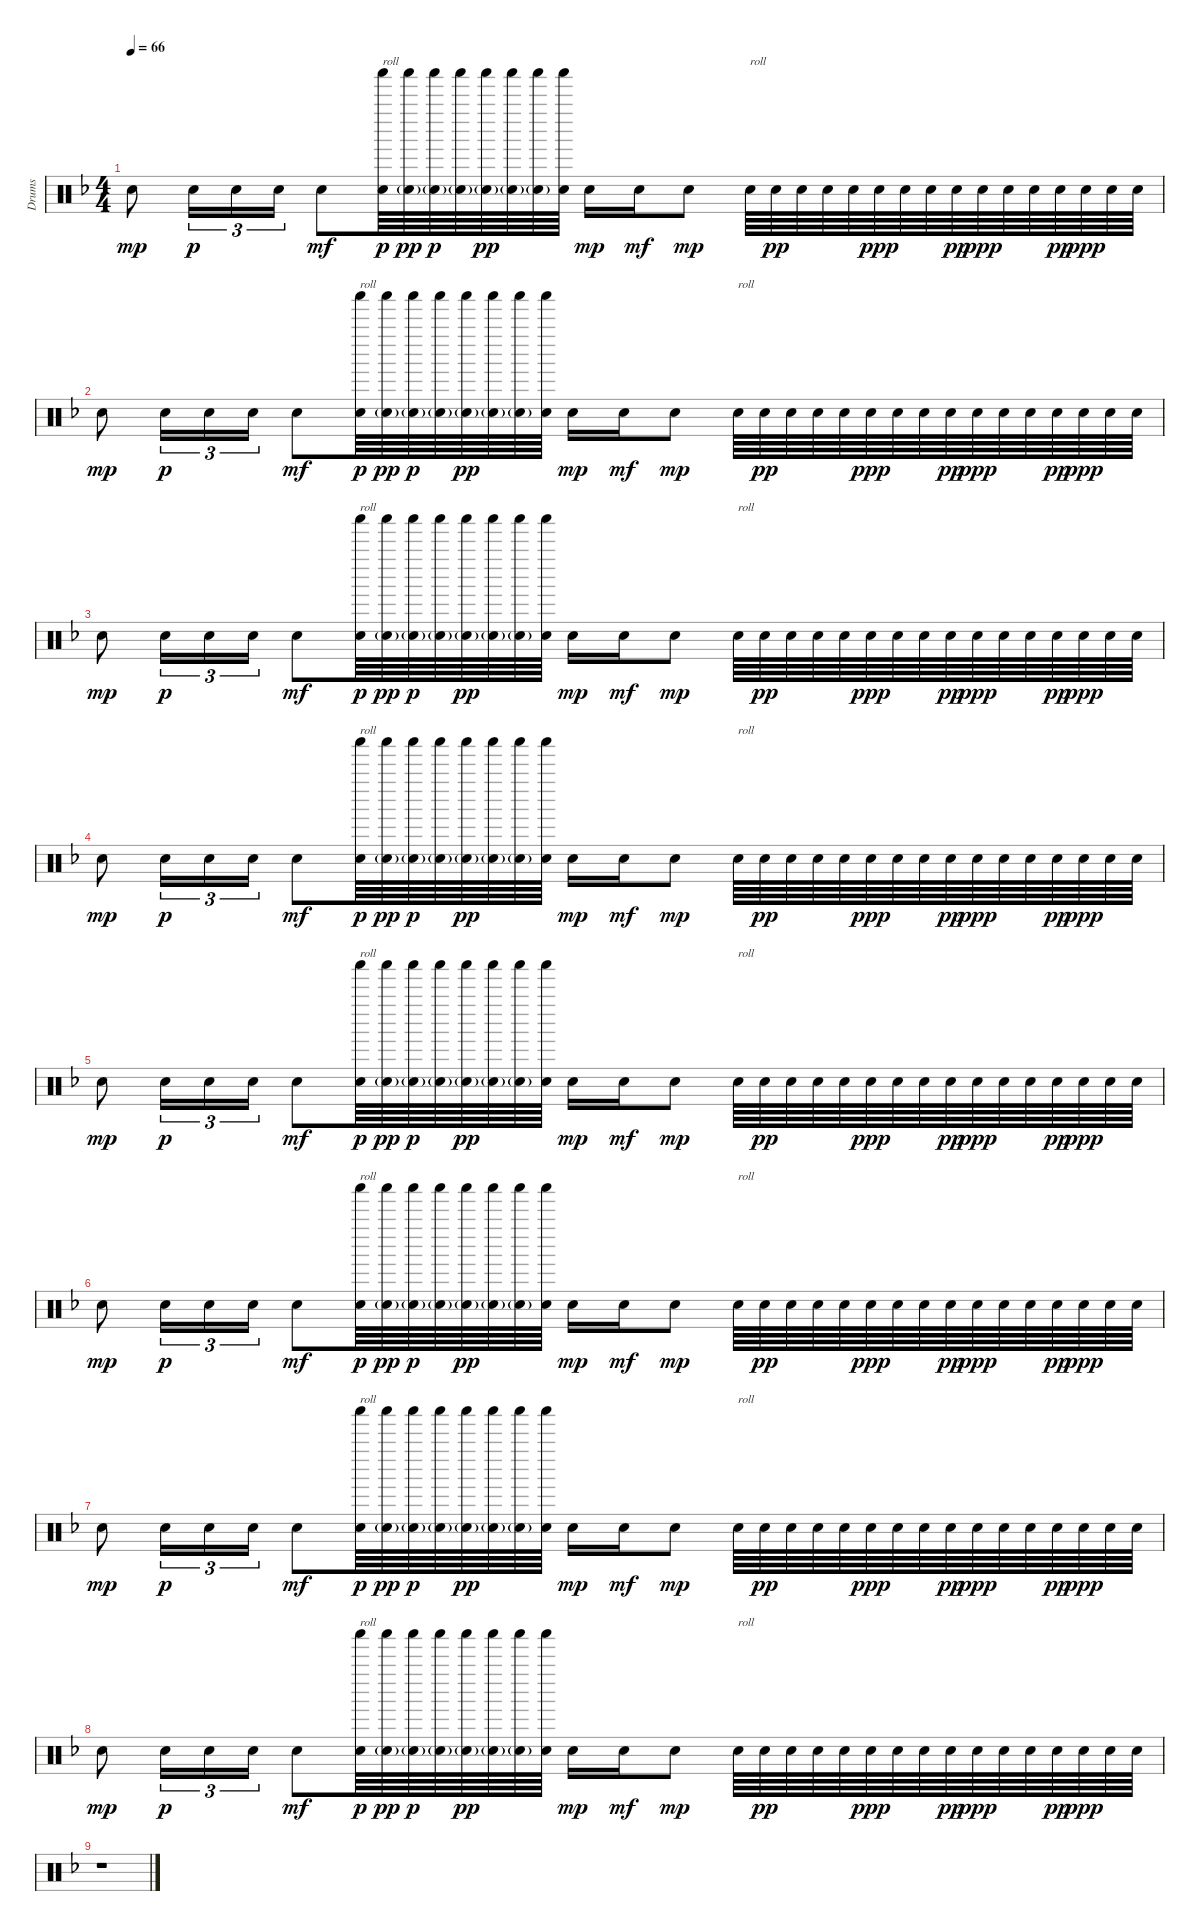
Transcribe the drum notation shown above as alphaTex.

\track ("Drums" "Drums") {instrument percussion}
\staff {score}
\articulation defaults
\ts (4 4)
\tempo 66
\clef neutral
\ks f "Electric Snare (hit)".8{dy mp} "Electric Snare (hit)".16{tu (3 2) dy p} "Electric Snare (hit)".16{tu (3 2)} "Electric Snare (hit)".16{tu (3 2)} "Electric Snare (hit)".8{dy mf}
("Shaker (hit)" "Electric Snare (hit)").64{txt "roll" dy p} ("Shaker (hit)" "Electric Snare (hit)"{g}).64{dy pp} ("Shaker (hit)" "Electric Snare (hit)"{g}).64{dy p} ("Shaker (hit)" "Electric Snare (hit)"{g}).64 ("Shaker (hit)" "Electric Snare (hit)"{g}).64{dy pp} ("Shaker (hit)" "Electric Snare (hit)"{g}).64 ("Shaker (hit)" "Electric Snare (hit)"{g}).64 ("Shaker (hit)" "Electric Snare (hit)").64 "Electric Snare (hit)".16{dy mp} "Electric Snare (hit)".16{dy mf} "Electric Snare (hit)".8{dy mp} "Electric Snare (hit)".64{txt "roll"} "Electric Snare (hit)".64{dy pp} "Electric Snare (hit)".64 "Electric Snare (hit)".64 "Electric Snare (hit)".64 "Electric Snare (hit)".64{dy ppp} "Electric Snare (hit)".64 "Electric Snare (hit)".64 "Electric Snare (hit)".64{dy pp} "Electric Snare (hit)".64{dy ppp} "Electric Snare (hit)".64 "Electric Snare (hit)".64 "Electric Snare (hit)".64{dy pp} "Electric Snare (hit)".64{dy ppp} "Electric Snare (hit)".64 "Electric Snare (hit)".64 |
"Electric Snare (hit)".8{dy mp} "Electric Snare (hit)".16{tu (3 2) dy p} "Electric Snare (hit)".16{tu (3 2)} "Electric Snare (hit)".16{tu (3 2)} "Electric Snare (hit)".8{dy mf} ("Shaker (hit)" "Electric Snare (hit)").64{txt "roll" dy p} ("Shaker (hit)" "Electric Snare (hit)"{g}).64{dy pp} ("Shaker (hit)" "Electric Snare (hit)"{g}).64{dy p} ("Shaker (hit)" "Electric Snare (hit)"{g}).64 ("Shaker (hit)" "Electric Snare (hit)"{g}).64{dy pp} ("Shaker (hit)" "Electric Snare (hit)"{g}).64 ("Shaker (hit)" "Electric Snare (hit)"{g}).64 ("Shaker (hit)" "Electric Snare (hit)").64 "Electric Snare (hit)".16{dy mp} "Electric Snare (hit)".16{dy mf} "Electric Snare (hit)".8{dy mp} "Electric Snare (hit)".64{txt "roll"} "Electric Snare (hit)".64{dy pp} "Electric Snare (hit)".64 "Electric Snare (hit)".64 "Electric Snare (hit)".64 "Electric Snare (hit)".64{dy ppp} "Electric Snare (hit)".64 "Electric Snare (hit)".64 "Electric Snare (hit)".64{dy pp} "Electric Snare (hit)".64{dy ppp} "Electric Snare (hit)".64 "Electric Snare (hit)".64 "Electric Snare (hit)".64{dy pp} "Electric Snare (hit)".64{dy ppp} "Electric Snare (hit)".64 "Electric Snare (hit)".64 |
"Electric Snare (hit)".8{dy mp} "Electric Snare (hit)".16{tu (3 2) dy p} "Electric Snare (hit)".16{tu (3 2)} "Electric Snare (hit)".16{tu (3 2)} "Electric Snare (hit)".8{dy mf} ("Shaker (hit)" "Electric Snare (hit)").64{txt "roll" dy p} ("Shaker (hit)" "Electric Snare (hit)"{g}).64{dy pp} ("Shaker (hit)" "Electric Snare (hit)"{g}).64{dy p} ("Shaker (hit)" "Electric Snare (hit)"{g}).64 ("Shaker (hit)" "Electric Snare (hit)"{g}).64{dy pp} ("Shaker (hit)" "Electric Snare (hit)"{g}).64 ("Shaker (hit)" "Electric Snare (hit)"{g}).64 ("Shaker (hit)" "Electric Snare (hit)").64 "Electric Snare (hit)".16{dy mp} "Electric Snare (hit)".16{dy mf} "Electric Snare (hit)".8{dy mp} "Electric Snare (hit)".64{txt "roll"} "Electric Snare (hit)".64{dy pp} "Electric Snare (hit)".64 "Electric Snare (hit)".64 "Electric Snare (hit)".64 "Electric Snare (hit)".64{dy ppp} "Electric Snare (hit)".64 "Electric Snare (hit)".64 "Electric Snare (hit)".64{dy pp} "Electric Snare (hit)".64{dy ppp} "Electric Snare (hit)".64 "Electric Snare (hit)".64 "Electric Snare (hit)".64{dy pp} "Electric Snare (hit)".64{dy ppp} "Electric Snare (hit)".64 "Electric Snare (hit)".64 |
"Electric Snare (hit)".8{dy mp} "Electric Snare (hit)".16{tu (3 2) dy p} "Electric Snare (hit)".16{tu (3 2)} "Electric Snare (hit)".16{tu (3 2)} "Electric Snare (hit)".8{dy mf} ("Shaker (hit)" "Electric Snare (hit)").64{txt "roll" dy p} ("Shaker (hit)" "Electric Snare (hit)"{g}).64{dy pp} ("Shaker (hit)" "Electric Snare (hit)"{g}).64{dy p} ("Shaker (hit)" "Electric Snare (hit)"{g}).64 ("Shaker (hit)" "Electric Snare (hit)"{g}).64{dy pp} ("Shaker (hit)" "Electric Snare (hit)"{g}).64 ("Shaker (hit)" "Electric Snare (hit)"{g}).64 ("Shaker (hit)" "Electric Snare (hit)").64 "Electric Snare (hit)".16{dy mp} "Electric Snare (hit)".16{dy mf} "Electric Snare (hit)".8{dy mp} "Electric Snare (hit)".64{txt "roll"} "Electric Snare (hit)".64{dy pp} "Electric Snare (hit)".64 "Electric Snare (hit)".64 "Electric Snare (hit)".64 "Electric Snare (hit)".64{dy ppp} "Electric Snare (hit)".64 "Electric Snare (hit)".64 "Electric Snare (hit)".64{dy pp} "Electric Snare (hit)".64{dy ppp} "Electric Snare (hit)".64 "Electric Snare (hit)".64 "Electric Snare (hit)".64{dy pp} "Electric Snare (hit)".64{dy ppp} "Electric Snare (hit)".64 "Electric Snare (hit)".64 |
"Electric Snare (hit)".8{dy mp volume 8} "Electric Snare (hit)".16{tu (3 2) dy p} "Electric Snare (hit)".16{tu (3 2)} "Electric Snare (hit)".16{tu (3 2)} "Electric Snare (hit)".8{dy mf} ("Shaker (hit)" "Electric Snare (hit)").64{txt "roll" dy p} ("Shaker (hit)" "Electric Snare (hit)"{g}).64{dy pp} ("Shaker (hit)" "Electric Snare (hit)"{g}).64{dy p} ("Shaker (hit)" "Electric Snare (hit)"{g}).64 ("Shaker (hit)" "Electric Snare (hit)"{g}).64{dy pp} ("Shaker (hit)" "Electric Snare (hit)"{g}).64 ("Shaker (hit)" "Electric Snare (hit)"{g}).64 ("Shaker (hit)" "Electric Snare (hit)").64 "Electric Snare (hit)".16{dy mp} "Electric Snare (hit)".16{dy mf} "Electric Snare (hit)".8{dy mp} "Electric Snare (hit)".64{txt "roll"} "Electric Snare (hit)".64{dy pp} "Electric Snare (hit)".64 "Electric Snare (hit)".64 "Electric Snare (hit)".64 "Electric Snare (hit)".64{dy ppp} "Electric Snare (hit)".64 "Electric Snare (hit)".64 "Electric Snare (hit)".64{dy pp} "Electric Snare (hit)".64{dy ppp} "Electric Snare (hit)".64 "Electric Snare (hit)".64 "Electric Snare (hit)".64{dy pp} "Electric Snare (hit)".64{dy ppp} "Electric Snare (hit)".64 "Electric Snare (hit)".64 |
"Electric Snare (hit)".8{dy mp volume 7} "Electric Snare (hit)".16{tu (3 2) dy p} "Electric Snare (hit)".16{tu (3 2)} "Electric Snare (hit)".16{tu (3 2)} "Electric Snare (hit)".8{dy mf} ("Shaker (hit)" "Electric Snare (hit)").64{txt "roll" dy p} ("Shaker (hit)" "Electric Snare (hit)"{g}).64{dy pp} ("Shaker (hit)" "Electric Snare (hit)"{g}).64{dy p} ("Shaker (hit)" "Electric Snare (hit)"{g}).64 ("Shaker (hit)" "Electric Snare (hit)"{g}).64{dy pp} ("Shaker (hit)" "Electric Snare (hit)"{g}).64 ("Shaker (hit)" "Electric Snare (hit)"{g}).64 ("Shaker (hit)" "Electric Snare (hit)").64 "Electric Snare (hit)".16{dy mp} "Electric Snare (hit)".16{dy mf} "Electric Snare (hit)".8{dy mp} "Electric Snare (hit)".64{txt "roll"} "Electric Snare (hit)".64{dy pp} "Electric Snare (hit)".64 "Electric Snare (hit)".64 "Electric Snare (hit)".64 "Electric Snare (hit)".64{dy ppp} "Electric Snare (hit)".64 "Electric Snare (hit)".64 "Electric Snare (hit)".64{dy pp} "Electric Snare (hit)".64{dy ppp} "Electric Snare (hit)".64 "Electric Snare (hit)".64 "Electric Snare (hit)".64{dy pp} "Electric Snare (hit)".64{dy ppp} "Electric Snare (hit)".64 "Electric Snare (hit)".64 |
"Electric Snare (hit)".8{dy mp volume 0} "Electric Snare (hit)".16{tu (3 2) dy p} "Electric Snare (hit)".16{tu (3 2)} "Electric Snare (hit)".16{tu (3 2)} "Electric Snare (hit)".8{dy mf} ("Shaker (hit)" "Electric Snare (hit)").64{txt "roll" dy p} ("Shaker (hit)" "Electric Snare (hit)"{g}).64{dy pp} ("Shaker (hit)" "Electric Snare (hit)"{g}).64{dy p} ("Shaker (hit)" "Electric Snare (hit)"{g}).64 ("Shaker (hit)" "Electric Snare (hit)"{g}).64{dy pp} ("Shaker (hit)" "Electric Snare (hit)"{g}).64 ("Shaker (hit)" "Electric Snare (hit)"{g}).64 ("Shaker (hit)" "Electric Snare (hit)").64 "Electric Snare (hit)".16{dy mp} "Electric Snare (hit)".16{dy mf} "Electric Snare (hit)".8{dy mp} "Electric Snare (hit)".64{txt "roll"} "Electric Snare (hit)".64{dy pp} "Electric Snare (hit)".64 "Electric Snare (hit)".64 "Electric Snare (hit)".64 "Electric Snare (hit)".64{dy ppp} "Electric Snare (hit)".64 "Electric Snare (hit)".64 "Electric Snare (hit)".64{dy pp} "Electric Snare (hit)".64{dy ppp} "Electric Snare (hit)".64 "Electric Snare (hit)".64 "Electric Snare (hit)".64{dy pp} "Electric Snare (hit)".64{dy ppp} "Electric Snare (hit)".64 "Electric Snare (hit)".64 |
"Electric Snare (hit)".8{dy mp} "Electric Snare (hit)".16{tu (3 2) dy p} "Electric Snare (hit)".16{tu (3 2)} "Electric Snare (hit)".16{tu (3 2)} "Electric Snare (hit)".8{dy mf} ("Shaker (hit)" "Electric Snare (hit)").64{txt "roll" dy p} ("Shaker (hit)" "Electric Snare (hit)"{g}).64{dy pp} ("Shaker (hit)" "Electric Snare (hit)"{g}).64{dy p} ("Shaker (hit)" "Electric Snare (hit)"{g}).64 ("Shaker (hit)" "Electric Snare (hit)"{g}).64{dy pp} ("Shaker (hit)" "Electric Snare (hit)"{g}).64 ("Shaker (hit)" "Electric Snare (hit)"{g}).64 ("Shaker (hit)" "Electric Snare (hit)").64 "Electric Snare (hit)".16{dy mp} "Electric Snare (hit)".16{dy mf} "Electric Snare (hit)".8{dy mp} "Electric Snare (hit)".64{txt "roll"} "Electric Snare (hit)".64{dy pp} "Electric Snare (hit)".64 "Electric Snare (hit)".64 "Electric Snare (hit)".64 "Electric Snare (hit)".64{dy ppp} "Electric Snare (hit)".64 "Electric Snare (hit)".64 "Electric Snare (hit)".64{dy pp} "Electric Snare (hit)".64{dy ppp} "Electric Snare (hit)".64 "Electric Snare (hit)".64 "Electric Snare (hit)".64{dy pp} "Electric Snare (hit)".64{dy ppp} "Electric Snare (hit)".64 "Electric Snare (hit)".64 |
r.1
